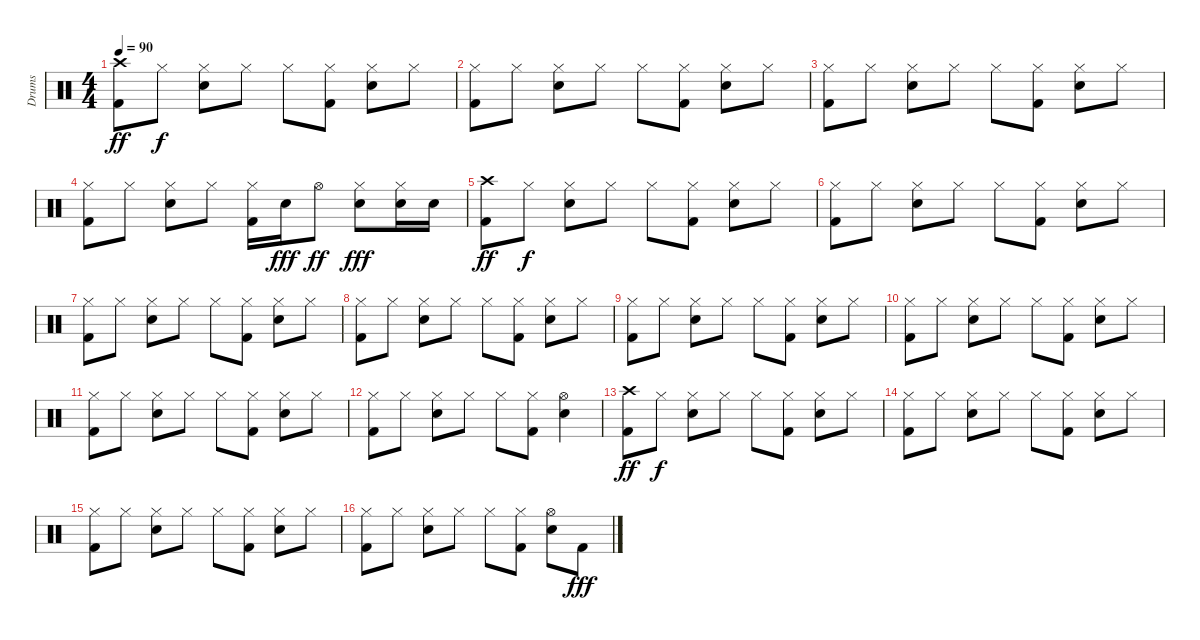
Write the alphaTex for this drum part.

\track ("Drums" "Drums") {instrument percussion}
\staff {score}
\articulation defaults
\ts (4 4)
\tempo 90
\clef neutral
\ks c
("Kick (hit) 2" "Crash high (hit)").8{dy ff} "Hi-Hat (closed)".8{dy f} ("Electric Snare (hit)" "Hi-Hat (closed)").8 "Hi-Hat (closed)".8 "Hi-Hat (closed)".8 ("Kick (hit) 2" "Hi-Hat (closed)").8 ("Electric Snare (hit)" "Hi-Hat (closed)").8 "Hi-Hat (closed)".8 |
("Kick (hit) 2" "Hi-Hat (closed)").8 "Hi-Hat (closed)".8 ("Electric Snare (hit)" "Hi-Hat (closed)").8 "Hi-Hat (closed)".8 "Hi-Hat (closed)".8 ("Kick (hit) 2" "Hi-Hat (closed)").8 ("Electric Snare (hit)" "Hi-Hat (closed)").8 "Hi-Hat (closed)".8 |
("Kick (hit) 2" "Hi-Hat (closed)").8 "Hi-Hat (closed)".8 ("Electric Snare (hit)" "Hi-Hat (closed)").8 "Hi-Hat (closed)".8 "Hi-Hat (closed)".8 ("Kick (hit) 2" "Hi-Hat (closed)").8 ("Electric Snare (hit)" "Hi-Hat (closed)").8 "Hi-Hat (closed)".8 |
("Kick (hit) 2" "Hi-Hat (closed)").8 "Hi-Hat (closed)".8 ("Electric Snare (hit)" "Hi-Hat (closed)").8 "Hi-Hat (closed)".8 ("Kick (hit) 2" "Hi-Hat (closed)").16 "Electric Snare (hit)".16{dy fff} "Hi-Hat (open)".8{dy ff} ("Electric Snare (hit)" "Hi-Hat (closed)").8{dy fff} ("Electric Snare (hit)" "Hi-Hat (closed)").16 "Electric Snare (hit)".16 |
("Kick (hit) 2" "Crash high (hit)").8{dy ff} "Hi-Hat (closed)".8{dy f} ("Electric Snare (hit)" "Hi-Hat (closed)").8 "Hi-Hat (closed)".8 "Hi-Hat (closed)".8 ("Kick (hit) 2" "Hi-Hat (closed)").8 ("Electric Snare (hit)" "Hi-Hat (closed)").8 "Hi-Hat (closed)".8 |
("Kick (hit) 2" "Hi-Hat (closed)").8 "Hi-Hat (closed)".8 ("Electric Snare (hit)" "Hi-Hat (closed)").8 "Hi-Hat (closed)".8 "Hi-Hat (closed)".8 ("Kick (hit) 2" "Hi-Hat (closed)").8 ("Electric Snare (hit)" "Hi-Hat (closed)").8 "Hi-Hat (closed)".8 |
("Kick (hit) 2" "Hi-Hat (closed)").8 "Hi-Hat (closed)".8 ("Electric Snare (hit)" "Hi-Hat (closed)").8 "Hi-Hat (closed)".8 "Hi-Hat (closed)".8 ("Kick (hit) 2" "Hi-Hat (closed)").8 ("Electric Snare (hit)" "Hi-Hat (closed)").8 "Hi-Hat (closed)".8 |
("Kick (hit) 2" "Hi-Hat (closed)").8 "Hi-Hat (closed)".8 ("Electric Snare (hit)" "Hi-Hat (closed)").8 "Hi-Hat (closed)".8 "Hi-Hat (closed)".8 ("Kick (hit) 2" "Hi-Hat (closed)").8 ("Electric Snare (hit)" "Hi-Hat (closed)").8 "Hi-Hat (closed)".8 |
("Kick (hit) 2" "Hi-Hat (closed)").8 "Hi-Hat (closed)".8 ("Electric Snare (hit)" "Hi-Hat (closed)").8 "Hi-Hat (closed)".8 "Hi-Hat (closed)".8 ("Kick (hit) 2" "Hi-Hat (closed)").8 ("Electric Snare (hit)" "Hi-Hat (closed)").8 "Hi-Hat (closed)".8 |
("Kick (hit) 2" "Hi-Hat (closed)").8 "Hi-Hat (closed)".8 ("Electric Snare (hit)" "Hi-Hat (closed)").8 "Hi-Hat (closed)".8 "Hi-Hat (closed)".8 ("Kick (hit) 2" "Hi-Hat (closed)").8 ("Electric Snare (hit)" "Hi-Hat (closed)").8 "Hi-Hat (closed)".8 |
("Kick (hit) 2" "Hi-Hat (closed)").8 "Hi-Hat (closed)".8 ("Electric Snare (hit)" "Hi-Hat (closed)").8 "Hi-Hat (closed)".8 "Hi-Hat (closed)".8 ("Kick (hit) 2" "Hi-Hat (closed)").8 ("Electric Snare (hit)" "Hi-Hat (closed)").8 "Hi-Hat (closed)".8 |
("Kick (hit) 2" "Hi-Hat (closed)").8 "Hi-Hat (closed)".8 ("Electric Snare (hit)" "Hi-Hat (closed)").8 "Hi-Hat (closed)".8 "Hi-Hat (closed)".8 ("Kick (hit) 2" "Hi-Hat (closed)").8 ("Electric Snare (hit)" "Hi-Hat (open)").4 |
("Kick (hit) 2" "Crash high (hit)").8{dy ff} "Hi-Hat (closed)".8{dy f} ("Electric Snare (hit)" "Hi-Hat (closed)").8 "Hi-Hat (closed)".8 "Hi-Hat (closed)".8 ("Kick (hit) 2" "Hi-Hat (closed)").8 ("Electric Snare (hit)" "Hi-Hat (closed)").8 "Hi-Hat (closed)".8 |
("Kick (hit) 2" "Hi-Hat (closed)").8 "Hi-Hat (closed)".8 ("Electric Snare (hit)" "Hi-Hat (closed)").8 "Hi-Hat (closed)".8 "Hi-Hat (closed)".8 ("Kick (hit) 2" "Hi-Hat (closed)").8 ("Electric Snare (hit)" "Hi-Hat (closed)").8 "Hi-Hat (closed)".8 |
("Kick (hit) 2" "Hi-Hat (closed)").8 "Hi-Hat (closed)".8 ("Electric Snare (hit)" "Hi-Hat (closed)").8 "Hi-Hat (closed)".8 "Hi-Hat (closed)".8 ("Kick (hit) 2" "Hi-Hat (closed)").8 ("Electric Snare (hit)" "Hi-Hat (closed)").8 "Hi-Hat (closed)".8 |
("Kick (hit) 2" "Hi-Hat (closed)").8 "Hi-Hat (closed)".8 ("Electric Snare (hit)" "Hi-Hat (closed)").8 "Hi-Hat (closed)".8 "Hi-Hat (closed)".8 ("Kick (hit) 2" "Hi-Hat (closed)").8 ("Electric Snare (hit)" "Hi-Hat (open)").8 "Kick (hit) 2".8{dy fff}
